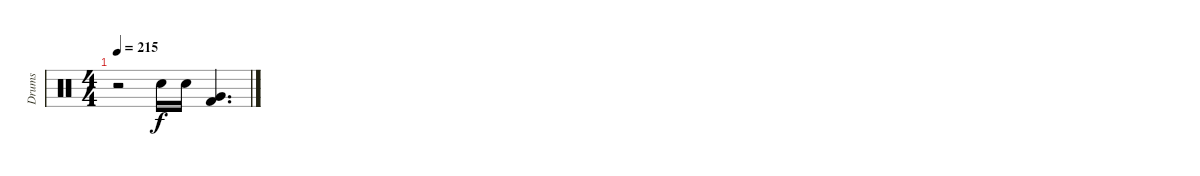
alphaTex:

\track ("Drums" "Drums") {instrument percussion}
\staff {score}
\articulation defaults
\ts (4 4)
\tempo 215
\clef neutral
\ks c
r.2{dy f} "Snare (hit) 2".16 "Snare (hit) 2".16 ("Very Low Tom (hit)" "Kick (hit) 2").4{d}
